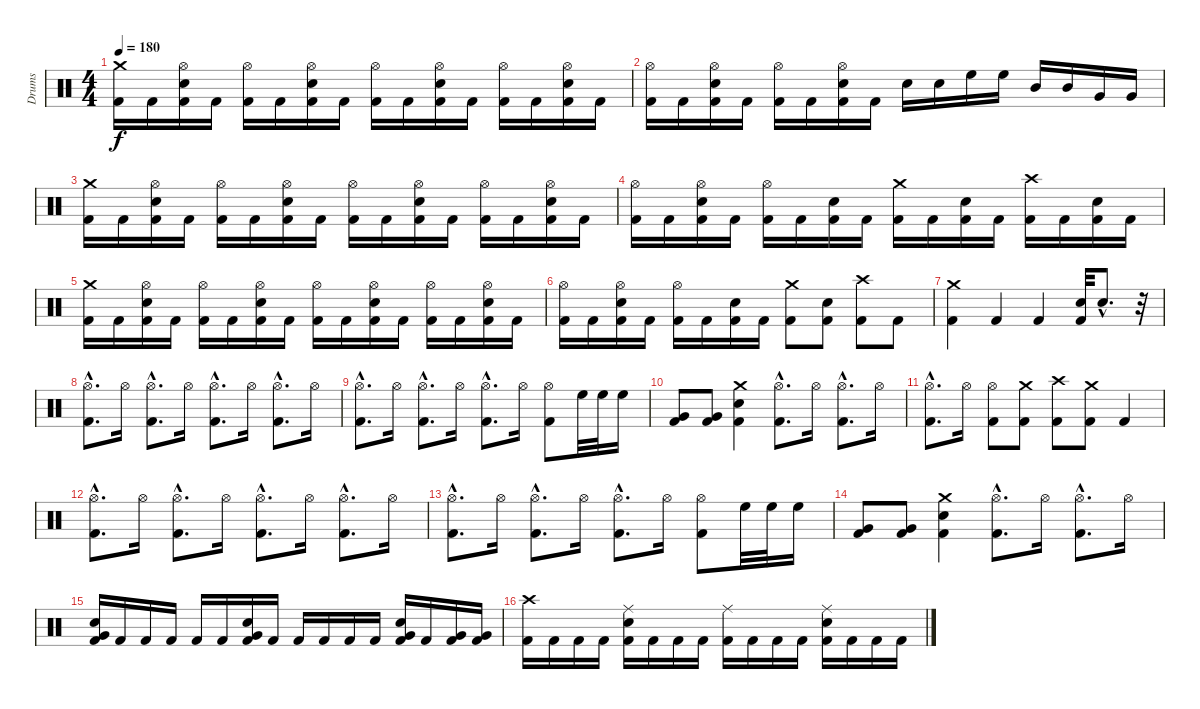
\track ("Drums" "Drums") {instrument percussion}
\staff {score}
\articulation defaults
\ts (4 4)
\tempo 180
\clef neutral
\ks c
("Crash medium (hit)" "Kick (hit) 2").16{dy f} "Kick (hit) 2".16 ("Hi-Hat (open)" "Electric Snare (hit)" "Kick (hit) 2").16 "Kick (hit) 2".16 ("Hi-Hat (open)" "Kick (hit) 2").16 "Kick (hit) 2".16 ("Hi-Hat (open)" "Electric Snare (hit)" "Kick (hit) 2").16 "Kick (hit) 2".16 ("Hi-Hat (open)" "Kick (hit) 2").16 "Kick (hit) 2".16 ("Hi-Hat (open)" "Electric Snare (hit)" "Kick (hit) 2").16 "Kick (hit) 2".16 ("Hi-Hat (open)" "Kick (hit) 2").16 "Kick (hit) 2".16 ("Hi-Hat (open)" "Electric Snare (hit)" "Kick (hit) 2").16 "Kick (hit) 2".16 |
("Hi-Hat (open)" "Kick (hit) 2").16 "Kick (hit) 2".16 ("Hi-Hat (open)" "Electric Snare (hit)" "Kick (hit) 2").16 "Kick (hit) 2".16 ("Hi-Hat (open)" "Kick (hit) 2").16 "Kick (hit) 2".16 ("Hi-Hat (open)" "Electric Snare (hit)" "Kick (hit) 2").16 "Kick (hit) 2".16 "Electric Snare (hit)".16 "Electric Snare (hit)".16 "High Floor Tom (hit)".16 "High Floor Tom (hit)".16 "Mid Tom (hit)".16 "Mid Tom (hit)".16 "Very Low Tom (hit)".16 "Very Low Tom (hit)".16 |
("Crash medium (hit)" "Kick (hit) 2").16 "Kick (hit) 2".16 ("Hi-Hat (open)" "Electric Snare (hit)" "Kick (hit) 2").16 "Kick (hit) 2".16 ("Hi-Hat (open)" "Kick (hit) 2").16 "Kick (hit) 2".16 ("Hi-Hat (open)" "Electric Snare (hit)" "Kick (hit) 2").16 "Kick (hit) 2".16 ("Hi-Hat (open)" "Kick (hit) 2").16 "Kick (hit) 2".16 ("Hi-Hat (open)" "Electric Snare (hit)" "Kick (hit) 2").16 "Kick (hit) 2".16 ("Hi-Hat (open)" "Kick (hit) 2").16 "Kick (hit) 2".16 ("Hi-Hat (open)" "Electric Snare (hit)" "Kick (hit) 2").16 "Kick (hit) 2".16 |
("Hi-Hat (open)" "Kick (hit) 2").16 "Kick (hit) 2".16 ("Hi-Hat (open)" "Electric Snare (hit)" "Kick (hit) 2").16 "Kick (hit) 2".16 ("Hi-Hat (open)" "Kick (hit) 2").16 "Kick (hit) 2".16 ("Electric Snare (hit)" "Kick (hit) 2").16 "Kick (hit) 2".16 ("Crash medium (hit)" "Kick (hit) 2").16 "Kick (hit) 2".16 ("Electric Snare (hit)" "Kick (hit) 2").16 "Kick (hit) 2".16 ("Crash high (hit)" "Kick (hit) 2").16 "Kick (hit) 2".16 ("Electric Snare (hit)" "Kick (hit) 2").16 "Kick (hit) 2".16 |
("Crash medium (hit)" "Kick (hit) 2").16 "Kick (hit) 2".16 ("Hi-Hat (open)" "Electric Snare (hit)" "Kick (hit) 2").16 "Kick (hit) 2".16 ("Hi-Hat (open)" "Kick (hit) 2").16 "Kick (hit) 2".16 ("Hi-Hat (open)" "Electric Snare (hit)" "Kick (hit) 2").16 "Kick (hit) 2".16 ("Hi-Hat (open)" "Kick (hit) 2").16 "Kick (hit) 2".16 ("Hi-Hat (open)" "Electric Snare (hit)" "Kick (hit) 2").16 "Kick (hit) 2".16 ("Hi-Hat (open)" "Kick (hit) 2").16 "Kick (hit) 2".16 ("Hi-Hat (open)" "Electric Snare (hit)" "Kick (hit) 2").16 "Kick (hit) 2".16 |
("Hi-Hat (open)" "Kick (hit) 2").16 "Kick (hit) 2".16 ("Hi-Hat (open)" "Electric Snare (hit)" "Kick (hit) 2").16 "Kick (hit) 2".16 ("Hi-Hat (open)" "Kick (hit) 2").16 "Kick (hit) 2".16 ("Electric Snare (hit)" "Kick (hit) 2").16 "Kick (hit) 2".16 ("Crash medium (hit)" "Kick (hit) 2").8 ("Electric Snare (hit)" "Kick (hit) 2").8 ("Crash high (hit)" "Kick (hit) 2").8 "Kick (hit) 2".8 |
("Crash medium (hit)" "Kick (hit) 2").4 "Kick (hit) 2".4 "Kick (hit) 2".4 ("Electric Snare (hit)" "Kick (hit) 2").32 "Electric Snare (hit)"{hac}.8{d} r.32 |
("Hi-Hat (open)"{hac} "Kick (hit) 2"{hac}).8{d} "Hi-Hat (open)".16 ("Hi-Hat (open)"{hac} "Kick (hit) 2"{hac}).8{d} "Hi-Hat (open)".16 ("Hi-Hat (open)"{hac} "Kick (hit) 2"{hac}).8{d} "Hi-Hat (open)".16 ("Hi-Hat (open)"{hac} "Kick (hit) 2"{hac}).8{d} "Hi-Hat (open)".16 |
("Hi-Hat (open)"{hac} "Kick (hit) 2"{hac}).8{d} "Hi-Hat (open)".16 ("Hi-Hat (open)"{hac} "Kick (hit) 2"{hac}).8{d} "Hi-Hat (open)".16 ("Hi-Hat (open)"{hac} "Kick (hit) 2"{hac}).8{d} "Hi-Hat (open)".16 ("Hi-Hat (open)" "Kick (hit) 2").8 "High Floor Tom (hit)".32 "High Floor Tom (hit)".32 "High Floor Tom (hit)".16 |
("Very Low Tom (hit)" "Kick (hit) 2").8 ("Very Low Tom (hit)" "Kick (hit) 2").8 ("Crash medium (hit)" "Electric Snare (hit)" "Kick (hit) 2").4 ("Hi-Hat (open)"{hac} "Kick (hit) 2"{hac}).8{d} "Hi-Hat (open)".16 ("Hi-Hat (open)"{hac} "Kick (hit) 2"{hac}).8{d} "Hi-Hat (open)".16 |
("Hi-Hat (open)"{hac} "Kick (hit) 2"{hac}).8{d} "Hi-Hat (open)".16 ("Hi-Hat (open)" "Kick (hit) 2").8 ("Crash medium (hit)" "Kick (hit) 2").8 ("Crash high (hit)" "Kick (hit) 2").8 ("Crash medium (hit)" "Kick (hit) 2").8 "Kick (hit) 2".4 |
("Hi-Hat (open)"{hac} "Kick (hit) 2"{hac}).8{d} "Hi-Hat (open)".16 ("Hi-Hat (open)"{hac} "Kick (hit) 2"{hac}).8{d} "Hi-Hat (open)".16 ("Hi-Hat (open)"{hac} "Kick (hit) 2"{hac}).8{d} "Hi-Hat (open)".16 ("Hi-Hat (open)"{hac} "Kick (hit) 2"{hac}).8{d} "Hi-Hat (open)".16 |
("Hi-Hat (open)"{hac} "Kick (hit) 2"{hac}).8{d} "Hi-Hat (open)".16 ("Hi-Hat (open)"{hac} "Kick (hit) 2"{hac}).8{d} "Hi-Hat (open)".16 ("Hi-Hat (open)"{hac} "Kick (hit) 2"{hac}).8{d} "Hi-Hat (open)".16 ("Hi-Hat (open)" "Kick (hit) 2").8 "High Floor Tom (hit)".32 "High Floor Tom (hit)".32 "High Floor Tom (hit)".16 |
("Very Low Tom (hit)" "Kick (hit) 2").8 ("Very Low Tom (hit)" "Kick (hit) 2").8 ("Crash medium (hit)" "Electric Snare (hit)" "Kick (hit) 2").4 ("Hi-Hat (open)"{hac} "Kick (hit) 2"{hac}).8{d} "Hi-Hat (open)".16 ("Hi-Hat (open)"{hac} "Kick (hit) 2"{hac}).8{d} "Hi-Hat (open)".16 |
("Electric Snare (hit)" "Very Low Tom (hit)" "Kick (hit) 2").16 "Kick (hit) 2".16 "Kick (hit) 2".16 "Kick (hit) 2".16 "Kick (hit) 2".16 "Kick (hit) 2".16 ("Electric Snare (hit)" "Very Low Tom (hit)" "Kick (hit) 2").16 "Kick (hit) 2".16 "Kick (hit) 2".16 "Kick (hit) 2".16 "Kick (hit) 2".16 "Kick (hit) 2".16 ("Electric Snare (hit)" "Very Low Tom (hit)" "Kick (hit) 2").16 "Kick (hit) 2".16 ("Very Low Tom (hit)" "Kick (hit) 2").16 ("Very Low Tom (hit)" "Kick (hit) 2").16 |
("Crash high (hit)" "Kick (hit) 2").16 "Kick (hit) 2".16 "Kick (hit) 2".16 "Kick (hit) 2".16 ("Ride (middle)" "Electric Snare (hit)" "Kick (hit) 2").16 "Kick (hit) 2".16 "Kick (hit) 2".16 "Kick (hit) 2".16 ("Ride (middle)" "Kick (hit) 2").16 "Kick (hit) 2".16 "Kick (hit) 2".16 "Kick (hit) 2".16 ("Ride (middle)" "Electric Snare (hit)" "Kick (hit) 2").16 "Kick (hit) 2".16 "Kick (hit) 2".16 "Kick (hit) 2".16
